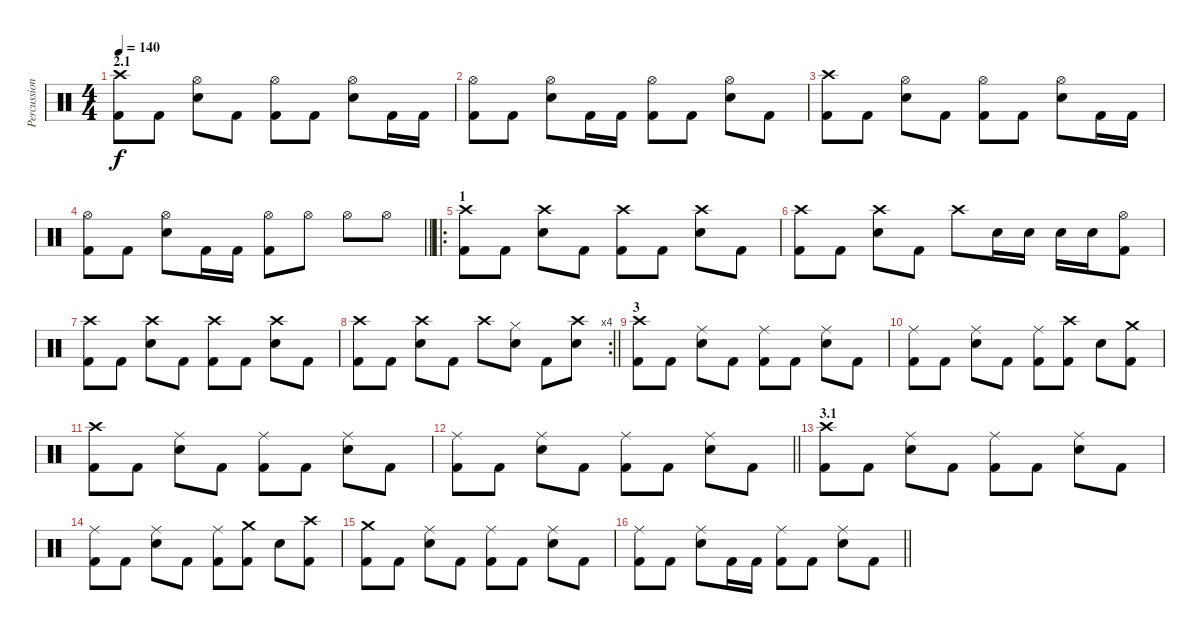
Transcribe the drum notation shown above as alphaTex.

\track ("Percussion" "Percussion") {instrument percussion}
\staff {score}
\articulation defaults
\ts (4 4)
\section ("" "2.1")
\tempo 140
\clef neutral
\ks c
("Kick (hit) 2" "Crash high (hit)").8{dy f} "Kick (hit) 2".8 ("Snare (hit) 2" "Hi-Hat (open)").8 "Kick (hit) 2".8 ("Kick (hit) 2" "Hi-Hat (open)").8 "Kick (hit) 2".8 ("Snare (hit) 2" "Hi-Hat (open)").8 "Kick (hit) 2".16 "Kick (hit) 2".16 |
("Kick (hit) 2" "Hi-Hat (open)").8 "Kick (hit) 2".8 ("Snare (hit) 2" "Hi-Hat (open)").8 "Kick (hit) 2".16 "Kick (hit) 2".16 ("Kick (hit) 2" "Hi-Hat (open)").8 "Kick (hit) 2".8 ("Snare (hit) 2" "Hi-Hat (open)").8 "Kick (hit) 2".8 |
("Kick (hit) 2" "Crash high (hit)").8 "Kick (hit) 2".8 ("Snare (hit) 2" "Hi-Hat (open)").8 "Kick (hit) 2".8 ("Kick (hit) 2" "Hi-Hat (open)").8 "Kick (hit) 2".8 ("Snare (hit) 2" "Hi-Hat (open)").8 "Kick (hit) 2".16 "Kick (hit) 2".16 |
\barLineRight lightlight
("Kick (hit) 2" "Hi-Hat (open)").8 "Kick (hit) 2".8 ("Snare (hit) 2" "Hi-Hat (open)").8 "Kick (hit) 2".16 "Kick (hit) 2".16 ("Kick (hit) 2" "Hi-Hat (open)").8 "Hi-Hat (open)".8 "Hi-Hat (open)".8 "Hi-Hat (open)".8 |
\ro
\section ("" "1")
("Kick (hit) 2" "Crash high (hit)").8 "Kick (hit) 2".8 ("Snare (hit) 2" "Crash high (hit)").8 "Kick (hit) 2".8 ("Kick (hit) 2" "Crash high (hit)").8 "Kick (hit) 2".8 ("Snare (hit) 2" "Crash high (hit)").8 "Kick (hit) 2".8 |
("Kick (hit) 2" "Crash high (hit)").8 "Kick (hit) 2".8 ("Snare (hit) 2" "Crash high (hit)").8 "Kick (hit) 2".8 "Crash high (hit)".8 "Snare (hit) 2".16 "Snare (hit) 2".16 "Snare (hit) 2".16 "Snare (hit) 2".16 ("Kick (hit) 2" "Hi-Hat (open)").8 |
("Kick (hit) 2" "Crash high (hit)").8 "Kick (hit) 2".8 ("Snare (hit) 2" "Crash high (hit)").8 "Kick (hit) 2".8 ("Kick (hit) 2" "Crash high (hit)").8 "Kick (hit) 2".8 ("Snare (hit) 2" "Crash high (hit)").8 "Kick (hit) 2".8 |
\rc 4
\barLineRight lightlight
("Kick (hit) 2" "Crash high (hit)").8 "Kick (hit) 2".8 ("Snare (hit) 2" "Crash high (hit)").8 "Kick (hit) 2".8 "Crash high (hit)".8 ("Snare (hit) 2" "Hi-Hat (closed)").8 "Kick (hit) 2".8 ("Snare (hit) 2" "Crash high (hit)").8 |
\section ("" "3")
("Kick (hit) 2" "Crash high (hit)").8 "Kick (hit) 2".8 ("Snare (hit) 2" "Ride (middle)").8 "Kick (hit) 2".8 ("Kick (hit) 2" "Ride (middle)").8 "Kick (hit) 2".8 ("Snare (hit) 2" "Ride (middle)").8 "Kick (hit) 2".8 |
("Kick (hit) 2" "Ride (middle)").8 "Kick (hit) 2".8 ("Snare (hit) 2" "Ride (middle)").8 "Kick (hit) 2".8 ("Kick (hit) 2" "Ride (middle)").8 ("Kick (hit) 2" "Crash high (hit)").8 "Snare (hit) 2".8 ("Kick (hit) 2" "Crash medium (hit)").8 |
("Kick (hit) 2" "Crash high (hit)").8 "Kick (hit) 2".8 ("Snare (hit) 2" "Ride (middle)").8 "Kick (hit) 2".8 ("Kick (hit) 2" "Ride (middle)").8 "Kick (hit) 2".8 ("Snare (hit) 2" "Ride (middle)").8 "Kick (hit) 2".8 |
\barLineRight lightlight
("Kick (hit) 2" "Ride (middle)").8 "Kick (hit) 2".8 ("Snare (hit) 2" "Ride (middle)").8 "Kick (hit) 2".8 ("Kick (hit) 2" "Ride (middle)").8 "Kick (hit) 2".8 ("Snare (hit) 2" "Ride (middle)").8 "Kick (hit) 2".8 |
\section ("" "3.1")
("Kick (hit) 2" "Crash high (hit)").8 "Kick (hit) 2".8 ("Snare (hit) 2" "Ride (middle)").8 "Kick (hit) 2".8 ("Kick (hit) 2" "Ride (middle)").8 "Kick (hit) 2".8 ("Snare (hit) 2" "Ride (middle)").8 "Kick (hit) 2".8 |
("Kick (hit) 2" "Ride (middle)").8 "Kick (hit) 2".8 ("Snare (hit) 2" "Ride (middle)").8 "Kick (hit) 2".8 ("Kick (hit) 2" "Ride (middle)").8 ("Kick (hit) 2" "Crash medium (hit)").8 "Snare (hit) 2".8 ("Kick (hit) 2" "Crash high (hit)").8 |
("Kick (hit) 2" "Crash medium (hit)").8 "Kick (hit) 2".8 ("Snare (hit) 2" "Ride (middle)").8 "Kick (hit) 2".8 ("Kick (hit) 2" "Ride (middle)").8 "Kick (hit) 2".8 ("Snare (hit) 2" "Ride (middle)").8 "Kick (hit) 2".8 |
\barLineRight lightlight
("Kick (hit) 2" "Ride (middle)").8 "Kick (hit) 2".8 ("Snare (hit) 2" "Ride (middle)").8 "Kick (hit) 2".16 "Kick (hit) 2".16 ("Kick (hit) 2" "Ride (middle)").8 "Kick (hit) 2".8 ("Snare (hit) 2" "Ride (middle)").8 "Kick (hit) 2".8
